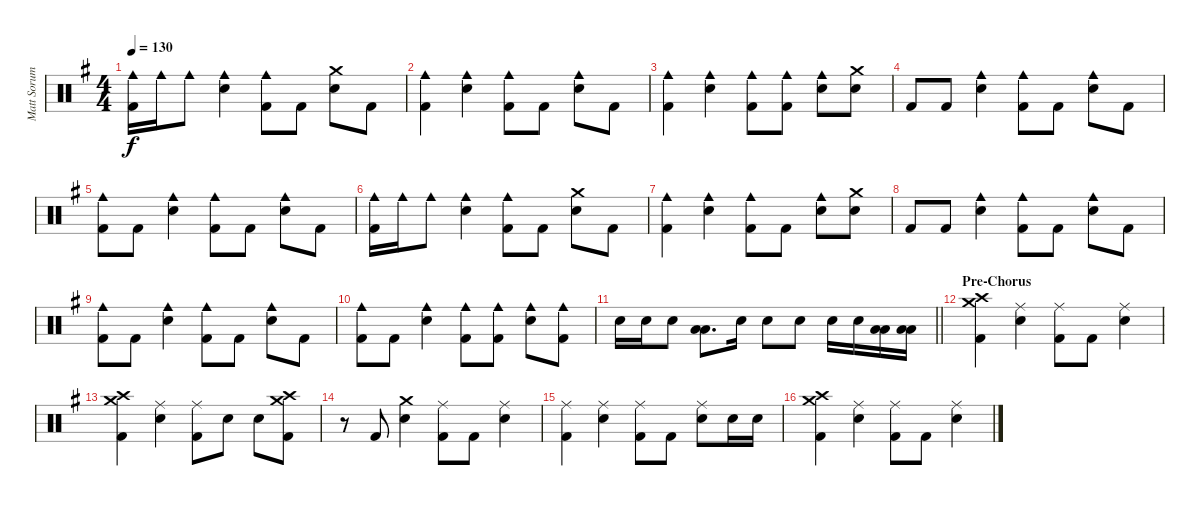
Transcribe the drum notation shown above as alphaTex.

\track ("Matt Sorum - Drums" "Matt Sorum") {instrument percussion}
\staff {score}
\articulation defaults
\ts (4 4)
\tempo 130
\clef neutral
\ks g
("Cowbell medium (hit)" "Kick (hit) 2").16{dy f} "Cowbell medium (hit)".16 "Cowbell medium (hit)".8 ("Cowbell medium (hit)" "Snare (hit) 2").4 ("Cowbell medium (hit)" "Kick (hit) 2").8 "Kick (hit) 2".8 ("Crash medium (hit)" "Snare (hit) 2").8 "Kick (hit) 2".8 |
("Cowbell medium (hit)" "Kick (hit) 2").4 ("Cowbell medium (hit)" "Snare (hit) 2").4 ("Cowbell medium (hit)" "Kick (hit) 2").8 "Kick (hit) 2".8 ("Cowbell medium (hit)" "Snare (hit) 2").8 "Kick (hit) 2".8 |
("Cowbell medium (hit)" "Kick (hit) 2").4 ("Cowbell medium (hit)" "Snare (hit) 2").4 ("Cowbell medium (hit)" "Kick (hit) 2").8 ("Cowbell medium (hit)" "Kick (hit) 2").8 ("Cowbell medium (hit)" "Snare (hit) 2").8 ("Crash medium (hit)" "Snare (hit) 2").8 |
"Kick (hit) 2".8 "Kick (hit) 2".8 ("Cowbell medium (hit)" "Snare (hit) 2").4 ("Cowbell medium (hit)" "Kick (hit) 2").8 "Kick (hit) 2".8 ("Cowbell medium (hit)" "Snare (hit) 2").8 "Kick (hit) 2".8 |
("Cowbell medium (hit)" "Kick (hit) 2").8 "Kick (hit) 2".8 ("Cowbell medium (hit)" "Snare (hit) 2").4 ("Cowbell medium (hit)" "Kick (hit) 2").8 "Kick (hit) 2".8 ("Cowbell medium (hit)" "Snare (hit) 2").8 "Kick (hit) 2".8 |
("Cowbell medium (hit)" "Kick (hit) 2").16 "Cowbell medium (hit)".16 "Cowbell medium (hit)".8 ("Cowbell medium (hit)" "Snare (hit) 2").4 ("Cowbell medium (hit)" "Kick (hit) 2").8 "Kick (hit) 2".8 ("Crash medium (hit)" "Snare (hit) 2").8 "Kick (hit) 2".8 |
("Cowbell medium (hit)" "Kick (hit) 2").4 ("Cowbell medium (hit)" "Snare (hit) 2").4 ("Cowbell medium (hit)" "Kick (hit) 2").8 "Kick (hit) 2".8 ("Cowbell medium (hit)" "Snare (hit) 2").8 ("Crash medium (hit)" "Snare (hit) 2").8 |
"Kick (hit) 2".8 "Kick (hit) 2".8 ("Cowbell medium (hit)" "Snare (hit) 2").4 ("Cowbell medium (hit)" "Kick (hit) 2").8 "Kick (hit) 2".8 ("Cowbell medium (hit)" "Snare (hit) 2").8 "Kick (hit) 2".8 |
("Cowbell medium (hit)" "Kick (hit) 2").8 "Kick (hit) 2".8 ("Cowbell medium (hit)" "Snare (hit) 2").4 ("Cowbell medium (hit)" "Kick (hit) 2").8 "Kick (hit) 2".8 ("Cowbell medium (hit)" "Snare (hit) 2").8 "Kick (hit) 2".8 |
("Cowbell medium (hit)" "Kick (hit) 2").8 "Kick (hit) 2".8 ("Cowbell medium (hit)" "Snare (hit) 2").4 ("Cowbell medium (hit)" "Kick (hit) 2").8 ("Cowbell medium (hit)" "Kick (hit) 2").8 ("Cowbell medium (hit)" "Snare (hit) 2").8 ("Cowbell medium (hit)" "Kick (hit) 2").8 |
\barLineRight lightlight "Snare (hit) 2".16 "Snare (hit) 2".16 "Snare (hit) 2".8
("Low Tom (hit)" "Low Tom (hit)").8{d} "Snare (hit) 2".16 "Snare (hit) 2".8 "Snare (hit) 2".8 "Snare (hit) 2".16 "Snare (hit) 2".16 ("Low Tom (hit)" "Low Tom (hit)").16 ("Low Tom (hit)" "Low Tom (hit)").16 |
\section ("" "Pre-Chorus")
("Crash medium (hit)" "Crash high (hit)" "Kick (hit) 2").4 ("Ride (middle)" "Snare (hit) 2").4 ("Ride (middle)" "Kick (hit) 2").8 "Kick (hit) 2".8 ("Ride (middle)" "Snare (hit) 2").4 |
("Crash medium (hit)" "Crash high (hit)" "Kick (hit) 2").4 ("Ride (middle)" "Snare (hit) 2").4 ("Ride (middle)" "Kick (hit) 2").8 "Snare (hit) 2".8 "Snare (hit) 2".8 ("Crash medium (hit)" "Crash high (hit)" "Kick (hit) 2").8 |
r.8 "Kick (hit) 2".8 ("Crash medium (hit)" "Snare (hit) 2").4 ("Ride (middle)" "Kick (hit) 2").8 "Kick (hit) 2".8 ("Ride (middle)" "Snare (hit) 2").4 |
("Ride (middle)" "Kick (hit) 2").4 ("Ride (middle)" "Snare (hit) 2").4 ("Ride (middle)" "Kick (hit) 2").8 "Kick (hit) 2".8 ("Ride (middle)" "Snare (hit) 2").8 "Snare (hit) 2".16 "Snare (hit) 2".16 |
("Crash medium (hit)" "Crash high (hit)" "Kick (hit) 2").4 ("Ride (middle)" "Snare (hit) 2").4 ("Ride (middle)" "Kick (hit) 2").8 "Kick (hit) 2".8 ("Ride (middle)" "Snare (hit) 2").4
